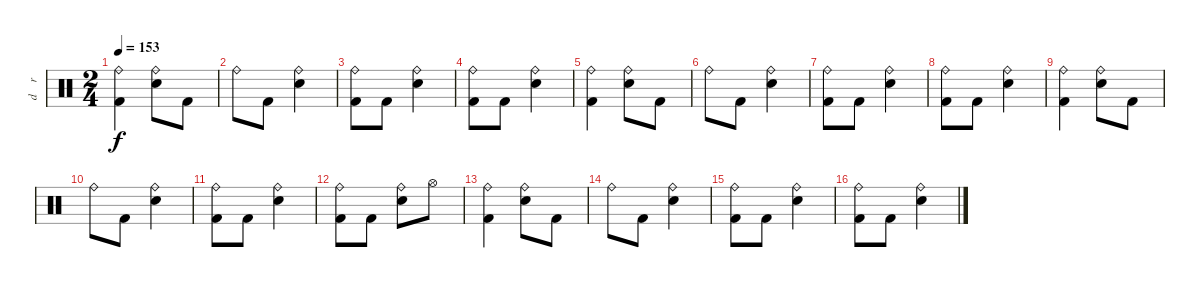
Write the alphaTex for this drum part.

\track ("d    r     u    m    s" "d    r    ") {instrument percussion}
\staff {score}
\articulation defaults
\ts (2 4)
\tempo 153
\clef neutral
\ks c
("Ride (bell)" "Kick (hit) 2").4{dy f} ("Ride (bell)" "Electric Snare (hit)").8 "Kick (hit) 2".8 |
"Ride (bell)".8 "Kick (hit) 2".8 ("Ride (bell)" "Electric Snare (hit)").4 |
("Ride (bell)" "Kick (hit) 2").8 "Kick (hit) 2".8 ("Ride (bell)" "Electric Snare (hit)").4 |
("Ride (bell)" "Kick (hit) 2").8 "Kick (hit) 2".8 ("Ride (bell)" "Electric Snare (hit)").4 |
("Ride (bell)" "Kick (hit) 2").4 ("Ride (bell)" "Electric Snare (hit)").8 "Kick (hit) 2".8 |
"Ride (bell)".8 "Kick (hit) 2".8 ("Ride (bell)" "Electric Snare (hit)").4 |
("Ride (bell)" "Kick (hit) 2").8 "Kick (hit) 2".8 ("Ride (bell)" "Electric Snare (hit)").4 |
("Ride (bell)" "Kick (hit) 2").8 "Kick (hit) 2".8 ("Ride (bell)" "Electric Snare (hit)").4 |
("Ride (bell)" "Kick (hit) 2").4 ("Ride (bell)" "Electric Snare (hit)").8 "Kick (hit) 2".8 |
"Ride (bell)".8 "Kick (hit) 2".8 ("Ride (bell)" "Electric Snare (hit)").4 |
("Ride (bell)" "Kick (hit) 2").8 "Kick (hit) 2".8 ("Ride (bell)" "Electric Snare (hit)").4 |
("Ride (bell)" "Kick (hit) 2").8 "Kick (hit) 2".8 ("Ride (bell)" "Electric Snare (hit)").8 "Hi-Hat (open)".8 |
("Ride (bell)" "Kick (hit) 2").4 ("Ride (bell)" "Electric Snare (hit)").8 "Kick (hit) 2".8 |
"Ride (bell)".8 "Kick (hit) 2".8 ("Ride (bell)" "Electric Snare (hit)").4 |
("Ride (bell)" "Kick (hit) 2").8 "Kick (hit) 2".8 ("Ride (bell)" "Electric Snare (hit)").4 |
("Ride (bell)" "Kick (hit) 2").8 "Kick (hit) 2".8 ("Ride (bell)" "Electric Snare (hit)").4
